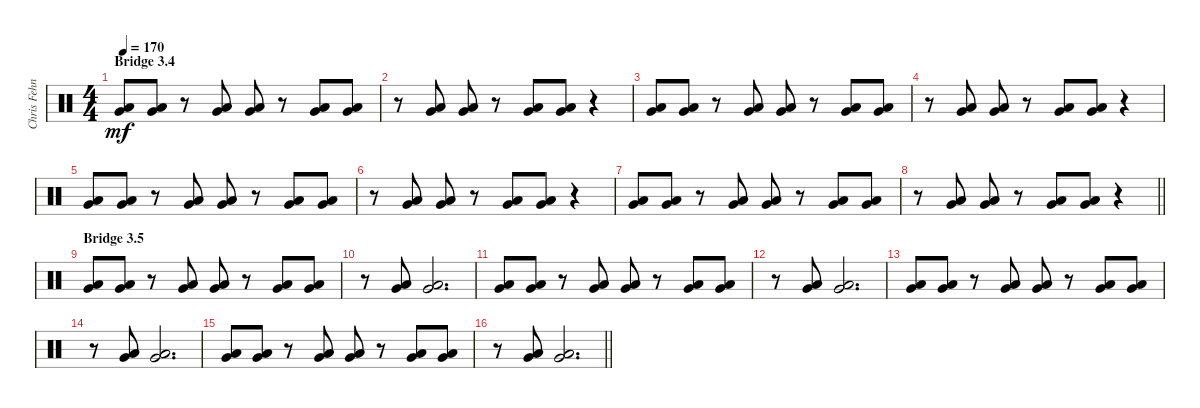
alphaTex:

\track ("Chris Fehn" "Chris Fehn") {instrument percussion}
\staff {score}
\articulation defaults
\ts (4 4)
\section ("" "Bridge 3.4")
\tempo 170
\clef neutral
\ks c
("Very Low Tom (hit)" "Low Floor Tom (hit)").8{dy mf} ("Very Low Tom (hit)" "Low Floor Tom (hit)").8 r.8 ("Very Low Tom (hit)" "Low Floor Tom (hit)").8 ("Very Low Tom (hit)" "Low Floor Tom (hit)").8 r.8 ("Very Low Tom (hit)" "Low Floor Tom (hit)").8 ("Very Low Tom (hit)" "Low Floor Tom (hit)").8 |
r.8 ("Very Low Tom (hit)" "Low Floor Tom (hit)").8 ("Very Low Tom (hit)" "Low Floor Tom (hit)").8 r.8 ("Very Low Tom (hit)" "Low Floor Tom (hit)").8 ("Very Low Tom (hit)" "Low Floor Tom (hit)").8 r.4 |
("Very Low Tom (hit)" "Low Floor Tom (hit)").8 ("Very Low Tom (hit)" "Low Floor Tom (hit)").8 r.8 ("Very Low Tom (hit)" "Low Floor Tom (hit)").8 ("Very Low Tom (hit)" "Low Floor Tom (hit)").8 r.8 ("Very Low Tom (hit)" "Low Floor Tom (hit)").8 ("Very Low Tom (hit)" "Low Floor Tom (hit)").8 |
r.8 ("Very Low Tom (hit)" "Low Floor Tom (hit)").8 ("Very Low Tom (hit)" "Low Floor Tom (hit)").8 r.8 ("Very Low Tom (hit)" "Low Floor Tom (hit)").8 ("Very Low Tom (hit)" "Low Floor Tom (hit)").8 r.4 |
("Very Low Tom (hit)" "Low Floor Tom (hit)").8 ("Very Low Tom (hit)" "Low Floor Tom (hit)").8 r.8 ("Very Low Tom (hit)" "Low Floor Tom (hit)").8 ("Very Low Tom (hit)" "Low Floor Tom (hit)").8 r.8 ("Very Low Tom (hit)" "Low Floor Tom (hit)").8 ("Very Low Tom (hit)" "Low Floor Tom (hit)").8 |
r.8 ("Very Low Tom (hit)" "Low Floor Tom (hit)").8 ("Very Low Tom (hit)" "Low Floor Tom (hit)").8 r.8 ("Very Low Tom (hit)" "Low Floor Tom (hit)").8 ("Very Low Tom (hit)" "Low Floor Tom (hit)").8 r.4 |
("Very Low Tom (hit)" "Low Floor Tom (hit)").8 ("Very Low Tom (hit)" "Low Floor Tom (hit)").8 r.8 ("Very Low Tom (hit)" "Low Floor Tom (hit)").8 ("Very Low Tom (hit)" "Low Floor Tom (hit)").8 r.8 ("Very Low Tom (hit)" "Low Floor Tom (hit)").8 ("Very Low Tom (hit)" "Low Floor Tom (hit)").8 |
\barLineRight lightlight
r.8 ("Very Low Tom (hit)" "Low Floor Tom (hit)").8 ("Very Low Tom (hit)" "Low Floor Tom (hit)").8 r.8 ("Very Low Tom (hit)" "Low Floor Tom (hit)").8 ("Very Low Tom (hit)" "Low Floor Tom (hit)").8 r.4 |
\section ("" "Bridge 3.5")
("Very Low Tom (hit)" "Low Floor Tom (hit)").8 ("Very Low Tom (hit)" "Low Floor Tom (hit)").8 r.8 ("Very Low Tom (hit)" "Low Floor Tom (hit)").8 ("Very Low Tom (hit)" "Low Floor Tom (hit)").8 r.8 ("Very Low Tom (hit)" "Low Floor Tom (hit)").8 ("Very Low Tom (hit)" "Low Floor Tom (hit)").8 |
r.8 ("Very Low Tom (hit)" "Low Floor Tom (hit)").8 ("Very Low Tom (hit)" "Low Floor Tom (hit)").2{d} |
("Very Low Tom (hit)" "Low Floor Tom (hit)").8 ("Very Low Tom (hit)" "Low Floor Tom (hit)").8 r.8 ("Very Low Tom (hit)" "Low Floor Tom (hit)").8 ("Very Low Tom (hit)" "Low Floor Tom (hit)").8 r.8 ("Very Low Tom (hit)" "Low Floor Tom (hit)").8 ("Very Low Tom (hit)" "Low Floor Tom (hit)").8 |
r.8 ("Very Low Tom (hit)" "Low Floor Tom (hit)").8 ("Very Low Tom (hit)" "Low Floor Tom (hit)").2{d} |
("Very Low Tom (hit)" "Low Floor Tom (hit)").8 ("Very Low Tom (hit)" "Low Floor Tom (hit)").8 r.8 ("Very Low Tom (hit)" "Low Floor Tom (hit)").8 ("Very Low Tom (hit)" "Low Floor Tom (hit)").8 r.8 ("Very Low Tom (hit)" "Low Floor Tom (hit)").8 ("Very Low Tom (hit)" "Low Floor Tom (hit)").8 |
r.8 ("Very Low Tom (hit)" "Low Floor Tom (hit)").8 ("Very Low Tom (hit)" "Low Floor Tom (hit)").2{d} |
("Very Low Tom (hit)" "Low Floor Tom (hit)").8 ("Very Low Tom (hit)" "Low Floor Tom (hit)").8 r.8 ("Very Low Tom (hit)" "Low Floor Tom (hit)").8 ("Very Low Tom (hit)" "Low Floor Tom (hit)").8 r.8 ("Very Low Tom (hit)" "Low Floor Tom (hit)").8 ("Very Low Tom (hit)" "Low Floor Tom (hit)").8 |
\barLineRight lightlight
r.8 ("Very Low Tom (hit)" "Low Floor Tom (hit)").8 ("Very Low Tom (hit)" "Low Floor Tom (hit)").2{d}
